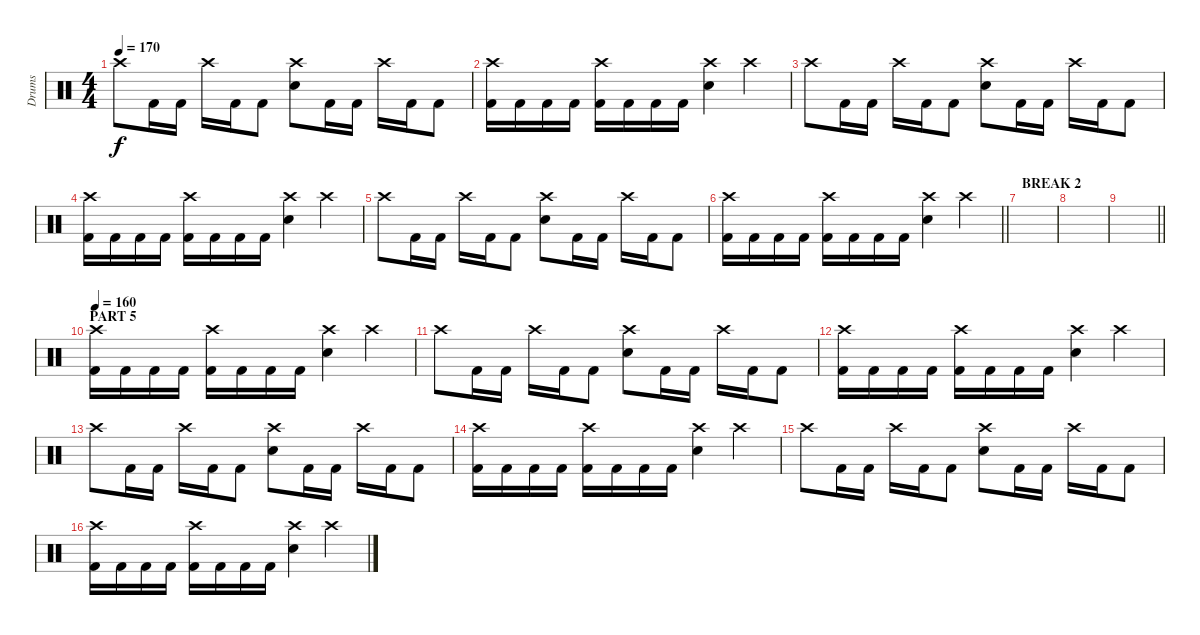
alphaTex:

\track ("Drums" "Drums") {instrument percussion}
\staff
\articulation defaults
\ts (4 4)
\tempo 170
\clef neutral
\ks c "Crash high (hit)".8{dy f} "Kick (hit) 2".16 "Kick (hit) 2".16 "Crash high (hit)".16 "Kick (hit) 2".16 "Kick (hit) 2".8
("Crash high (hit)" "Electric Snare (hit)").8 "Kick (hit) 2".16 "Kick (hit) 2".16 "Crash high (hit)".16 "Kick (hit) 2".16 "Kick (hit) 2".8 |
("Crash high (hit)" "Kick (hit) 2").16 "Kick (hit) 2".16 "Kick (hit) 2".16 "Kick (hit) 2".16 ("Crash high (hit)" "Kick (hit) 2").16 "Kick (hit) 2".16 "Kick (hit) 2".16 "Kick (hit) 2".16 ("Crash high (hit)" "Electric Snare (hit)").4 "Crash high (hit)".4 |
"Crash high (hit)".8 "Kick (hit) 2".16 "Kick (hit) 2".16 "Crash high (hit)".16 "Kick (hit) 2".16 "Kick (hit) 2".8 ("Crash high (hit)" "Electric Snare (hit)").8 "Kick (hit) 2".16 "Kick (hit) 2".16 "Crash high (hit)".16 "Kick (hit) 2".16 "Kick (hit) 2".8 |
("Crash high (hit)" "Kick (hit) 2").16 "Kick (hit) 2".16 "Kick (hit) 2".16 "Kick (hit) 2".16 ("Crash high (hit)" "Kick (hit) 2").16 "Kick (hit) 2".16 "Kick (hit) 2".16 "Kick (hit) 2".16 ("Crash high (hit)" "Electric Snare (hit)").4 "Crash high (hit)".4 |
"Crash high (hit)".8 "Kick (hit) 2".16 "Kick (hit) 2".16 "Crash high (hit)".16 "Kick (hit) 2".16 "Kick (hit) 2".8 ("Crash high (hit)" "Electric Snare (hit)").8 "Kick (hit) 2".16 "Kick (hit) 2".16 "Crash high (hit)".16 "Kick (hit) 2".16 "Kick (hit) 2".8 |
\barLineRight lightlight
("Crash high (hit)" "Kick (hit) 2").16 "Kick (hit) 2".16 "Kick (hit) 2".16 "Kick (hit) 2".16 ("Crash high (hit)" "Kick (hit) 2").16 "Kick (hit) 2".16 "Kick (hit) 2".16 "Kick (hit) 2".16 ("Crash high (hit)" "Electric Snare (hit)").4 "Crash high (hit)".4 |
\section ("" "BREAK 2")
|
|
\barLineRight lightlight
|
\section ("" "PART 5")
\tempo 160
("Crash high (hit)" "Kick (hit) 2").16 "Kick (hit) 2".16 "Kick (hit) 2".16 "Kick (hit) 2".16 ("Crash high (hit)" "Kick (hit) 2").16 "Kick (hit) 2".16 "Kick (hit) 2".16 "Kick (hit) 2".16 ("Crash high (hit)" "Electric Snare (hit)").4 "Crash high (hit)".4 |
"Crash high (hit)".8 "Kick (hit) 2".16 "Kick (hit) 2".16 "Crash high (hit)".16 "Kick (hit) 2".16 "Kick (hit) 2".8 ("Crash high (hit)" "Electric Snare (hit)").8 "Kick (hit) 2".16 "Kick (hit) 2".16 "Crash high (hit)".16 "Kick (hit) 2".16 "Kick (hit) 2".8 |
("Crash high (hit)" "Kick (hit) 2").16 "Kick (hit) 2".16 "Kick (hit) 2".16 "Kick (hit) 2".16 ("Crash high (hit)" "Kick (hit) 2").16 "Kick (hit) 2".16 "Kick (hit) 2".16 "Kick (hit) 2".16 ("Crash high (hit)" "Electric Snare (hit)").4 "Crash high (hit)".4 |
"Crash high (hit)".8 "Kick (hit) 2".16 "Kick (hit) 2".16 "Crash high (hit)".16 "Kick (hit) 2".16 "Kick (hit) 2".8 ("Crash high (hit)" "Electric Snare (hit)").8 "Kick (hit) 2".16 "Kick (hit) 2".16 "Crash high (hit)".16 "Kick (hit) 2".16 "Kick (hit) 2".8 |
("Crash high (hit)" "Kick (hit) 2").16 "Kick (hit) 2".16 "Kick (hit) 2".16 "Kick (hit) 2".16 ("Crash high (hit)" "Kick (hit) 2").16 "Kick (hit) 2".16 "Kick (hit) 2".16 "Kick (hit) 2".16 ("Crash high (hit)" "Electric Snare (hit)").4 "Crash high (hit)".4 |
"Crash high (hit)".8 "Kick (hit) 2".16 "Kick (hit) 2".16 "Crash high (hit)".16 "Kick (hit) 2".16 "Kick (hit) 2".8 ("Crash high (hit)" "Electric Snare (hit)").8 "Kick (hit) 2".16 "Kick (hit) 2".16 "Crash high (hit)".16 "Kick (hit) 2".16 "Kick (hit) 2".8 |
("Crash high (hit)" "Kick (hit) 2").16 "Kick (hit) 2".16 "Kick (hit) 2".16 "Kick (hit) 2".16 ("Crash high (hit)" "Kick (hit) 2").16 "Kick (hit) 2".16 "Kick (hit) 2".16 "Kick (hit) 2".16 ("Crash high (hit)" "Electric Snare (hit)").4 "Crash high (hit)".4
